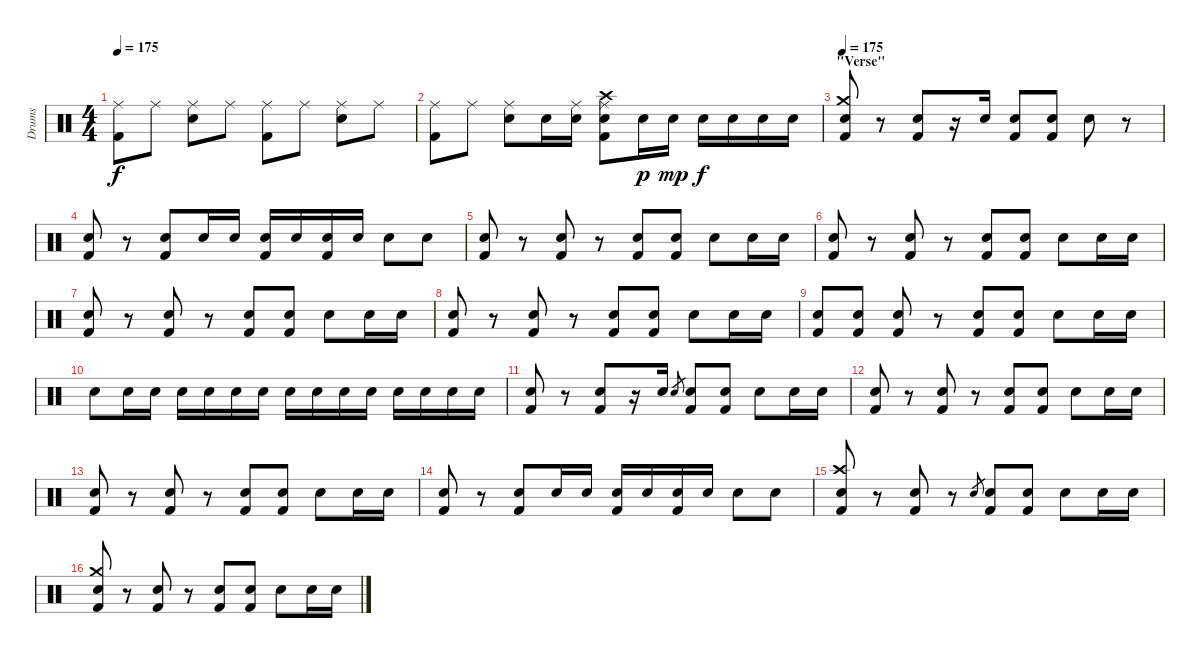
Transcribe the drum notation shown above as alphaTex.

\track ("Drums" "Drums") {instrument percussion}
\staff {score}
\articulation defaults
\ts (4 4)
\tempo 175
\clef neutral
\ks c
("Ride (middle)" "Kick (hit) 2").8{dy f} "Ride (middle)".8 ("Ride (middle)" "Electric Snare (hit)").8 "Ride (middle)".8 ("Ride (middle)" "Kick (hit) 2").8 "Ride (middle)".8 ("Ride (middle)" "Electric Snare (hit)").8 "Ride (middle)".8 |
("Ride (middle)" "Kick (hit) 2").8 "Ride (middle)".8 ("Ride (middle)" "Electric Snare (hit)").8 "Electric Snare (hit)".16 ("Ride (middle)" "Electric Snare (hit)").16 ("Crash high (hit)" "Ride (middle)" "Electric Snare (hit)" "Kick (hit) 2").8 "Electric Snare (hit)".16{dy p} "Electric Snare (hit)".16{dy mp} "Electric Snare (hit)".16{dy f} "Electric Snare (hit)".16 "Electric Snare (hit)".16 "Electric Snare (hit)".16 |
\section ("" "\"Verse\"")
\tempo 175
("Crash medium (hit)" "Snare (hit) 2" "Kick (hit) 2").8 r.8 ("Electric Snare (hit)" "Kick (hit) 2").8 r.16 "Snare (hit) 2".16 ("Snare (hit) 2" "Kick (hit) 2").8 ("Snare (hit) 2" "Kick (hit) 2").8 "Electric Snare (hit)".8 r.8 |
("Snare (hit) 2" "Kick (hit) 2").8 r.8 ("Electric Snare (hit)" "Kick (hit) 2").8 "Snare (hit) 2".16 "Snare (hit) 2".16 ("Snare (hit) 2" "Kick (hit) 2").16 "Snare (hit) 2".16 ("Snare (hit) 2" "Kick (hit) 2").16 "Snare (hit) 2".16 "Electric Snare (hit)".8 "Electric Snare (hit)".8 |
("Snare (hit) 2" "Kick (hit) 2").8 r.8 ("Electric Snare (hit)" "Kick (hit) 2").8 r.8 ("Snare (hit) 2" "Kick (hit) 2").8 ("Snare (hit) 2" "Kick (hit) 2").8 "Electric Snare (hit)".8 "Snare (hit) 2".16 "Snare (hit) 2".16 |
("Snare (hit) 2" "Kick (hit) 2").8 r.8 ("Electric Snare (hit)" "Kick (hit) 2").8 r.8 ("Snare (hit) 2" "Kick (hit) 2").8 ("Snare (hit) 2" "Kick (hit) 2").8 "Electric Snare (hit)".8 "Snare (hit) 2".16 "Snare (hit) 2".16 |
("Snare (hit) 2" "Kick (hit) 2").8 r.8 ("Electric Snare (hit)" "Kick (hit) 2").8 r.8 ("Snare (hit) 2" "Kick (hit) 2").8 ("Snare (hit) 2" "Kick (hit) 2").8 "Electric Snare (hit)".8 "Snare (hit) 2".16 "Snare (hit) 2".16 |
("Snare (hit) 2" "Kick (hit) 2").8 r.8 ("Electric Snare (hit)" "Kick (hit) 2").8 r.8 ("Snare (hit) 2" "Kick (hit) 2").8 ("Snare (hit) 2" "Kick (hit) 2").8 "Electric Snare (hit)".8 "Snare (hit) 2".16 "Snare (hit) 2".16 |
("Snare (hit) 2" "Kick (hit) 2").8 ("Snare (hit) 2" "Kick (hit) 2").8 ("Electric Snare (hit)" "Kick (hit) 2").8 r.8 ("Snare (hit) 2" "Kick (hit) 2").8 ("Snare (hit) 2" "Kick (hit) 2").8 "Electric Snare (hit)".8 "Snare (hit) 2".16 "Snare (hit) 2".16 |
"Snare (hit) 2".8 "Snare (hit) 2".16 "Snare (hit) 2".16 "Snare (hit) 2".16 "Snare (hit) 2".16 "Snare (hit) 2".16 "Snare (hit) 2".16 "Snare (hit) 2".16 "Snare (hit) 2".16 "Snare (hit) 2".16 "Snare (hit) 2".16 "Snare (hit) 2".16 "Snare (hit) 2".16 "Snare (hit) 2".16 "Snare (hit) 2".16 |
("Snare (hit) 2" "Kick (hit) 2").8 r.8 ("Electric Snare (hit)" "Kick (hit) 2").8 r.16 "Snare (hit) 2".16 "Snare (hit) 2".8{gr} ("Snare (hit) 2" "Kick (hit) 2").8 ("Snare (hit) 2" "Kick (hit) 2").8 "Electric Snare (hit)".8 "Snare (hit) 2".16 "Snare (hit) 2".16 |
("Snare (hit) 2" "Kick (hit) 2").8 r.8 ("Electric Snare (hit)" "Kick (hit) 2").8 r.8 ("Snare (hit) 2" "Kick (hit) 2").8 ("Snare (hit) 2" "Kick (hit) 2").8 "Electric Snare (hit)".8 "Snare (hit) 2".16 "Snare (hit) 2".16 |
("Snare (hit) 2" "Kick (hit) 2").8 r.8 ("Electric Snare (hit)" "Kick (hit) 2").8 r.8 ("Snare (hit) 2" "Kick (hit) 2").8 ("Snare (hit) 2" "Kick (hit) 2").8 "Electric Snare (hit)".8 "Snare (hit) 2".16 "Snare (hit) 2".16 |
("Snare (hit) 2" "Kick (hit) 2").8 r.8 ("Electric Snare (hit)" "Kick (hit) 2").8 "Snare (hit) 2".16 "Snare (hit) 2".16 ("Snare (hit) 2" "Kick (hit) 2").16 "Snare (hit) 2".16 ("Snare (hit) 2" "Kick (hit) 2").16 "Snare (hit) 2".16 "Electric Snare (hit)".8 "Electric Snare (hit)".8 |
("Crash high (hit)" "Snare (hit) 2" "Kick (hit) 2").8 r.8 ("Electric Snare (hit)" "Kick (hit) 2").8 r.8 "Snare (hit) 2".8{gr} ("Snare (hit) 2" "Kick (hit) 2").8 ("Snare (hit) 2" "Kick (hit) 2").8 "Electric Snare (hit)".8 "Snare (hit) 2".16 "Snare (hit) 2".16 |
("Crash medium (hit)" "Snare (hit) 2" "Kick (hit) 2").8 r.8 ("Electric Snare (hit)" "Kick (hit) 2").8 r.8 ("Snare (hit) 2" "Kick (hit) 2").8 ("Snare (hit) 2" "Kick (hit) 2").8 "Electric Snare (hit)".8 "Snare (hit) 2".16 "Snare (hit) 2".16
